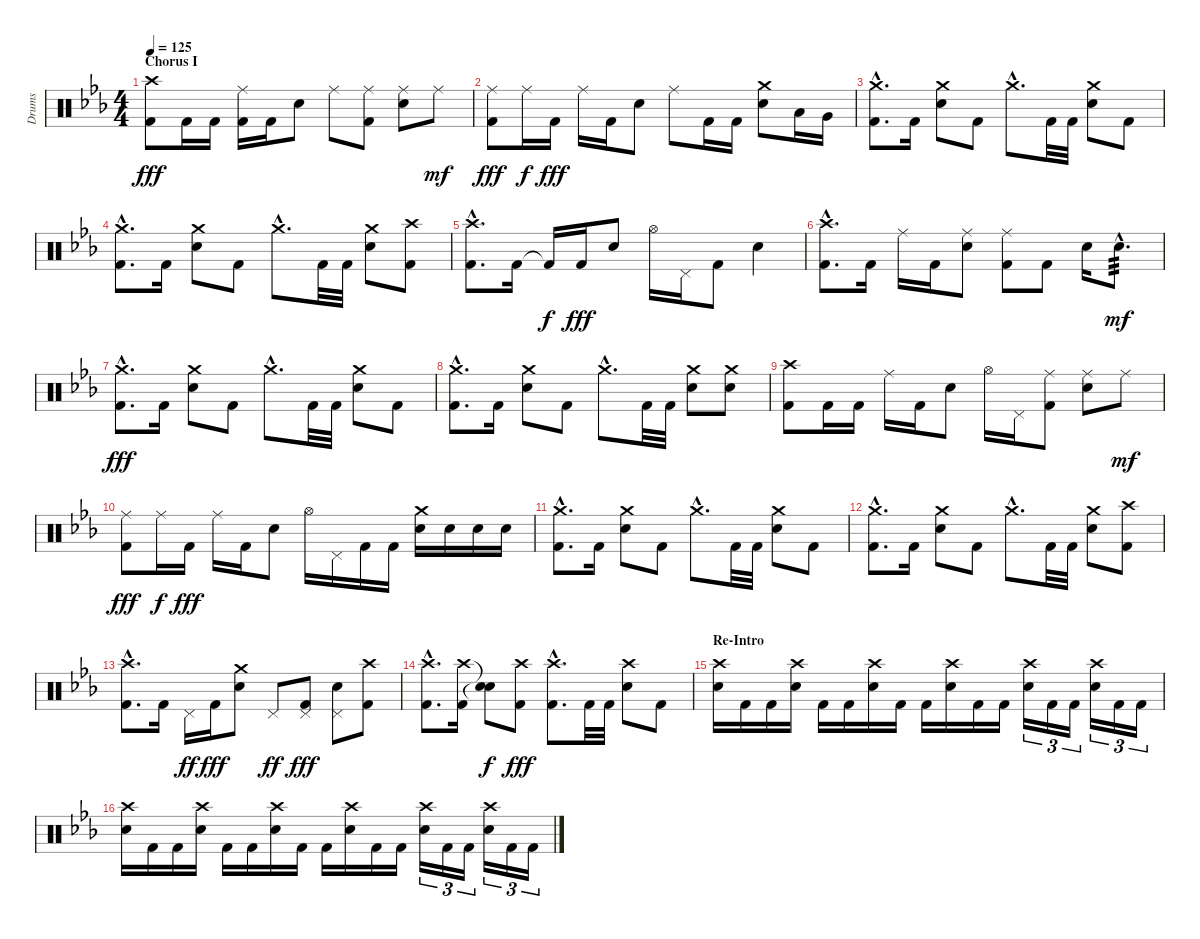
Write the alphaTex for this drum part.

\track ("Drums" "Drums") {instrument percussion}
\staff {score}
\articulation defaults
\ts (4 4)
\section ("" "Chorus I")
\tempo 125
\clef neutral
\ks cminor
("Crash high (hit)" "Kick (hit) 2").8{dy fff} "Kick (hit) 2".16 "Kick (hit) 2".16 ("Ride (middle)" "Kick (hit) 2").16 "Kick (hit) 2".16 "Snare (hit) 2".8 "Ride (middle)".8 ("Ride (middle)" "Kick (hit) 2").8 ("Ride (middle)" "Snare (hit) 2").8 "Ride (middle)".8{dy mf} |
("Ride (middle)" "Kick (hit) 2").8{dy fff} "Ride (middle)".16{dy f} "Kick (hit) 2".16{dy fff} "Ride (middle)".16 "Kick (hit) 2".16 "Snare (hit) 2".8 "Ride (middle)".8 "Kick (hit) 2".16 "Kick (hit) 2".16 ("Crash medium (hit)" "Snare (hit) 2").8 "Low Tom (hit)".16 "Very Low Tom (hit)".16 |
("Crash medium (hit)"{hac} "Kick (hit) 2"{hac}).8{d} "Kick (hit) 2".16 ("Crash medium (hit)" "Snare (hit) 2").8 "Kick (hit) 2".8 "Crash medium (hit)"{hac}.8{d} "Kick (hit) 2".32 "Kick (hit) 2".32 ("Crash medium (hit)" "Snare (hit) 2").8 "Kick (hit) 2".8 |
("Crash medium (hit)"{hac} "Kick (hit) 2"{hac}).8{d} "Kick (hit) 2".16 ("Crash medium (hit)" "Snare (hit) 2").8 "Kick (hit) 2".8 "Crash medium (hit)"{hac}.8{d} "Kick (hit) 2".32 "Kick (hit) 2".32 ("Crash medium (hit)" "Snare (hit) 2").8 ("Crash high (hit)" "Kick (hit) 2").8 |
("Crash high (hit)"{hac} "Kick (hit) 2"{hac}).8{d} "Kick (hit) 2".16 "Kick (hit) 2"{t}.16{dy f} "Kick (hit) 2".16{dy fff} "Snare (hit) 2".8 "Hi-Hat (open)".16 "Pedal Hi-Hat (hit)".16 "Kick (hit) 2".8 "Snare (hit) 2".4 |
("Crash high (hit)"{hac} "Kick (hit) 2"{hac}).8{d} "Kick (hit) 2".16 "Ride (middle)".16 "Kick (hit) 2".16 ("Ride (middle)" "Snare (hit) 2").8 ("Ride (middle)" "Kick (hit) 2").8 "Kick (hit) 2".8 "Snare (hit) 2".16 "Snare (hit) 2"{hac}.8{d tp 3 dy mf} |
("Crash medium (hit)"{hac} "Kick (hit) 2"{hac}).8{d dy fff} "Kick (hit) 2".16 ("Crash medium (hit)" "Snare (hit) 2").8 "Kick (hit) 2".8 "Crash medium (hit)"{hac}.8{d} "Kick (hit) 2".32 "Kick (hit) 2".32 ("Crash medium (hit)" "Snare (hit) 2").8 "Kick (hit) 2".8 |
("Crash medium (hit)"{hac} "Kick (hit) 2"{hac}).8{d} "Kick (hit) 2".16 ("Crash medium (hit)" "Snare (hit) 2").8 "Kick (hit) 2".8 "Crash medium (hit)"{hac}.8{d} "Kick (hit) 2".32 "Kick (hit) 2".32 ("Crash medium (hit)" "Snare (hit) 2").8 ("Crash medium (hit)" "Snare (hit) 2").8 |
("Crash high (hit)" "Kick (hit) 2").8 "Kick (hit) 2".16 "Kick (hit) 2".16 "Ride (middle)".16 "Kick (hit) 2".16 "Snare (hit) 2".8 "Hi-Hat (open)".16 "Pedal Hi-Hat (hit)".16 ("Ride (middle)" "Kick (hit) 2").8 ("Ride (middle)" "Snare (hit) 2").8 "Ride (middle)".8{dy mf} |
("Ride (middle)" "Kick (hit) 2").8{dy fff} "Ride (middle)".16{dy f} "Kick (hit) 2".16{dy fff} "Ride (middle)".16 "Kick (hit) 2".16 "Snare (hit) 2".8 "Hi-Hat (open)".16 "Pedal Hi-Hat (hit)".16 "Kick (hit) 2".16 "Kick (hit) 2".16 ("Crash medium (hit)" "Snare (hit) 2").16 "Snare (hit) 2".16 "Snare (hit) 2".16 "Snare (hit) 2".16 |
("Crash medium (hit)"{hac} "Kick (hit) 2"{hac}).8{d} "Kick (hit) 2".16 ("Crash medium (hit)" "Snare (hit) 2").8 "Kick (hit) 2".8 "Crash medium (hit)"{hac}.8{d} "Kick (hit) 2".32 "Kick (hit) 2".32 ("Crash medium (hit)" "Snare (hit) 2").8 "Kick (hit) 2".8 |
("Crash medium (hit)"{hac} "Kick (hit) 2"{hac}).8{d} "Kick (hit) 2".16 ("Crash medium (hit)" "Snare (hit) 2").8 "Kick (hit) 2".8 "Crash medium (hit)"{hac}.8{d} "Kick (hit) 2".32 "Kick (hit) 2".32 ("Crash medium (hit)" "Snare (hit) 2").8 ("Crash high (hit)" "Kick (hit) 2").8 |
("Crash high (hit)"{hac} "Kick (hit) 2"{hac}).8{d} "Kick (hit) 2".16 "Pedal Hi-Hat (hit)".16{dy ff} "Kick (hit) 2".16{dy fff} ("Crash medium (hit)" "Snare (hit) 2").8 "Pedal Hi-Hat (hit)".8{dy ff} ("Pedal Hi-Hat (hit)" "Kick (hit) 2").8{dy fff} ("Pedal Hi-Hat (hit)" "Snare (hit) 2").8 ("Crash high (hit)" "Kick (hit) 2").8 |
("Crash high (hit)"{hac} "Kick (hit) 2"{hac}).8{d} ("Crash high (hit)" "Kick (hit) 2").16 ("Snare (hit)"{t} "Snare (hit)"{t}).8{dy f} ("Crash high (hit)" "Kick (hit) 2").8{dy fff} ("Crash high (hit)"{hac} "Kick (hit) 2"{hac}).8{d} "Kick (hit) 2".32 "Kick (hit) 2".32 ("Crash high (hit)" "Snare (hit) 2").8 "Kick (hit) 2".8 |
\section ("" "Re-Intro")
("Crash high (hit)" "Snare (hit) 2").16 "Kick (hit) 2".16 "Kick (hit) 2".16 ("Crash high (hit)" "Snare (hit) 2").16 "Kick (hit) 2".16 "Kick (hit) 2".16 ("Crash high (hit)" "Snare (hit) 2").16 "Kick (hit) 2".16 "Kick (hit) 2".16 ("Crash high (hit)" "Snare (hit) 2").16 "Kick (hit) 2".16 "Kick (hit) 2".16 ("Crash high (hit)" "Snare (hit) 2").16{tu (3 2)} "Kick (hit) 2".16{tu (3 2)} "Kick (hit) 2".16{tu (3 2)} ("Crash high (hit)" "Snare (hit) 2").16{tu (3 2)} "Kick (hit) 2".16{tu (3 2)} "Kick (hit) 2".16{tu (3 2)} |
("Crash high (hit)" "Snare (hit) 2").16 "Kick (hit) 2".16 "Kick (hit) 2".16 ("Crash high (hit)" "Snare (hit) 2").16 "Kick (hit) 2".16 "Kick (hit) 2".16 ("Crash high (hit)" "Snare (hit) 2").16 "Kick (hit) 2".16 "Kick (hit) 2".16 ("Crash high (hit)" "Snare (hit) 2").16 "Kick (hit) 2".16 "Kick (hit) 2".16 ("Crash high (hit)" "Snare (hit) 2").16{tu (3 2)} "Kick (hit) 2".16{tu (3 2)} "Kick (hit) 2".16{tu (3 2)} ("Crash high (hit)" "Snare (hit) 2").16{tu (3 2)} "Kick (hit) 2".16{tu (3 2)} "Kick (hit) 2".16{tu (3 2)}
